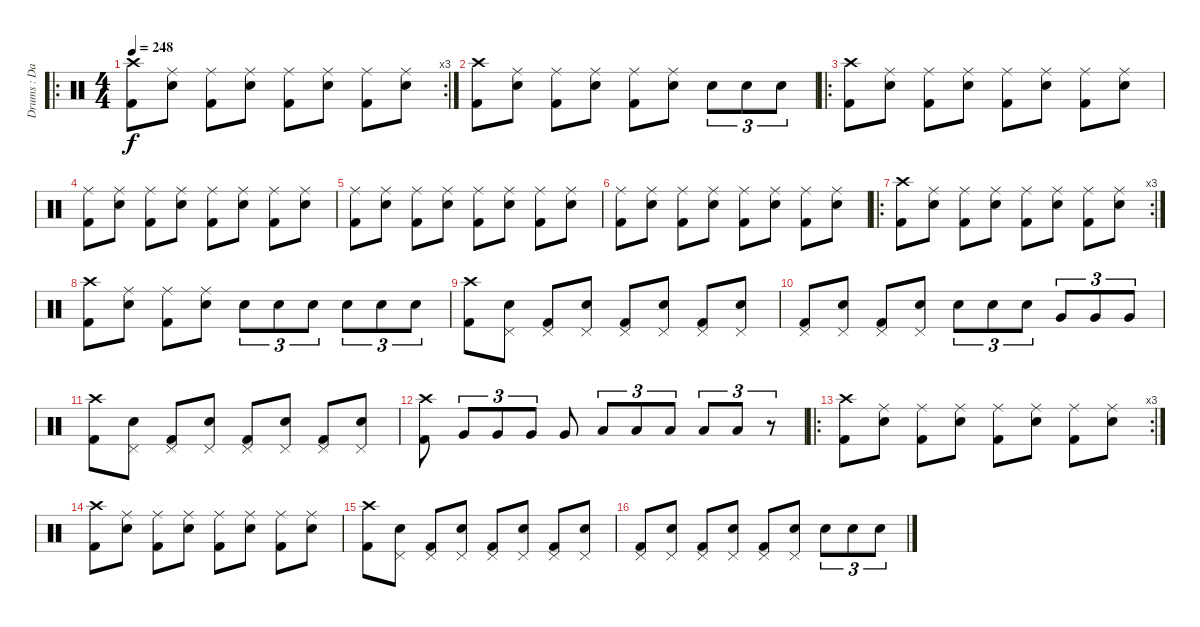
\track ("Drums : Dave Lombardo" "Drums : Da") {instrument percussion}
\staff {score}
\articulation defaults
\ro
\rc 3
\ts (4 4)
\tempo 248
\clef neutral
\ks c
("Crash high (hit)" "Kick (hit) 2").8{dy f} ("Ride (middle)" "Electric Snare (hit)").8 ("Ride (middle)" "Kick (hit) 2").8 ("Ride (middle)" "Electric Snare (hit)").8 ("Ride (middle)" "Kick (hit) 2").8 ("Ride (middle)" "Electric Snare (hit)").8 ("Ride (middle)" "Kick (hit) 2").8 ("Ride (middle)" "Electric Snare (hit)").8 |
("Crash high (hit)" "Kick (hit) 2").8 ("Ride (middle)" "Electric Snare (hit)").8 ("Ride (middle)" "Kick (hit) 2").8 ("Ride (middle)" "Electric Snare (hit)").8 ("Ride (middle)" "Kick (hit) 2").8 ("Ride (middle)" "Electric Snare (hit)").8 "Electric Snare (hit)".8{tu (3 2)} "Electric Snare (hit)".8{tu (3 2)} "Electric Snare (hit)".8{tu (3 2)} |
\ro
("Crash high (hit)" "Kick (hit) 2").8 ("Ride (middle)" "Electric Snare (hit)").8 ("Ride (middle)" "Kick (hit) 2").8 ("Ride (middle)" "Electric Snare (hit)").8 ("Ride (middle)" "Kick (hit) 2").8 ("Ride (middle)" "Electric Snare (hit)").8 ("Ride (middle)" "Kick (hit) 2").8 ("Ride (middle)" "Electric Snare (hit)").8 |
("Ride (middle)" "Kick (hit) 2").8 ("Ride (middle)" "Electric Snare (hit)").8 ("Ride (middle)" "Kick (hit) 2").8 ("Ride (middle)" "Electric Snare (hit)").8 ("Ride (middle)" "Kick (hit) 2").8 ("Ride (middle)" "Electric Snare (hit)").8 ("Ride (middle)" "Kick (hit) 2").8 ("Ride (middle)" "Electric Snare (hit)").8 |
("Ride (middle)" "Kick (hit) 2").8 ("Ride (middle)" "Electric Snare (hit)").8 ("Ride (middle)" "Kick (hit) 2").8 ("Ride (middle)" "Electric Snare (hit)").8 ("Ride (middle)" "Kick (hit) 2").8 ("Ride (middle)" "Electric Snare (hit)").8 ("Ride (middle)" "Kick (hit) 2").8 ("Ride (middle)" "Electric Snare (hit)").8 |
("Ride (middle)" "Kick (hit) 2").8 ("Ride (middle)" "Electric Snare (hit)").8 ("Ride (middle)" "Kick (hit) 2").8 ("Ride (middle)" "Electric Snare (hit)").8 ("Ride (middle)" "Kick (hit) 2").8 ("Ride (middle)" "Electric Snare (hit)").8 ("Ride (middle)" "Kick (hit) 2").8 ("Ride (middle)" "Electric Snare (hit)").8 |
\ro
\rc 3
("Crash high (hit)" "Kick (hit) 2").8 ("Ride (middle)" "Electric Snare (hit)").8 ("Ride (middle)" "Kick (hit) 2").8 ("Ride (middle)" "Electric Snare (hit)").8 ("Ride (middle)" "Kick (hit) 2").8 ("Ride (middle)" "Electric Snare (hit)").8 ("Ride (middle)" "Kick (hit) 2").8 ("Ride (middle)" "Electric Snare (hit)").8 |
("Crash high (hit)" "Kick (hit) 2").8 ("Ride (middle)" "Electric Snare (hit)").8 ("Ride (middle)" "Kick (hit) 2").8 ("Ride (middle)" "Electric Snare (hit)").8 "Electric Snare (hit)".8{tu (3 2)} "Electric Snare (hit)".8{tu (3 2)} "Electric Snare (hit)".8{tu (3 2)} "Electric Snare (hit)".8{tu (3 2)} "Electric Snare (hit)".8{tu (3 2)} "Electric Snare (hit)".8{tu (3 2)} |
("Crash high (hit)" "Kick (hit) 2").8 ("Pedal Hi-Hat (hit)" "Electric Snare (hit)").8 ("Pedal Hi-Hat (hit)" "Kick (hit) 2").8 ("Pedal Hi-Hat (hit)" "Electric Snare (hit)").8 ("Pedal Hi-Hat (hit)" "Kick (hit) 2").8 ("Pedal Hi-Hat (hit)" "Electric Snare (hit)").8 ("Pedal Hi-Hat (hit)" "Kick (hit) 2").8 ("Pedal Hi-Hat (hit)" "Electric Snare (hit)").8 |
("Pedal Hi-Hat (hit)" "Kick (hit) 2").8 ("Pedal Hi-Hat (hit)" "Electric Snare (hit)").8 ("Pedal Hi-Hat (hit)" "Kick (hit) 2").8 ("Pedal Hi-Hat (hit)" "Electric Snare (hit)").8 "Electric Snare (hit)".8{tu (3 2)} "Electric Snare (hit)".8{tu (3 2)} "Electric Snare (hit)".8{tu (3 2)} "Very Low Tom (hit)".8{tu (3 2)} "Very Low Tom (hit)".8{tu (3 2)} "Very Low Tom (hit)".8{tu (3 2)} |
("Crash high (hit)" "Kick (hit) 2").8 ("Pedal Hi-Hat (hit)" "Electric Snare (hit)").8 ("Pedal Hi-Hat (hit)" "Kick (hit) 2").8 ("Pedal Hi-Hat (hit)" "Electric Snare (hit)").8 ("Pedal Hi-Hat (hit)" "Kick (hit) 2").8 ("Pedal Hi-Hat (hit)" "Electric Snare (hit)").8 ("Pedal Hi-Hat (hit)" "Kick (hit) 2").8 ("Pedal Hi-Hat (hit)" "Electric Snare (hit)").8 |
("Crash high (hit)" "Kick (hit) 2").8 "Very Low Tom (hit)".8{tu (3 2)} "Very Low Tom (hit)".8{tu (3 2)} "Very Low Tom (hit)".8{tu (3 2)} "Very Low Tom (hit)".8 "Low Tom (hit)".8{tu (3 2)} "Low Tom (hit)".8{tu (3 2)} "Low Tom (hit)".8{tu (3 2)} "Low Tom (hit)".8{tu (3 2)} "Low Tom (hit)".8{tu (3 2)} r.8{tu (3 2)} |
\ro
\rc 3
("Crash high (hit)" "Kick (hit) 2").8 ("Ride (middle)" "Electric Snare (hit)").8 ("Ride (middle)" "Kick (hit) 2").8 ("Ride (middle)" "Electric Snare (hit)").8 ("Ride (middle)" "Kick (hit) 2").8 ("Ride (middle)" "Electric Snare (hit)").8 ("Ride (middle)" "Kick (hit) 2").8 ("Ride (middle)" "Electric Snare (hit)").8 |
("Crash high (hit)" "Kick (hit) 2").8 ("Ride (middle)" "Electric Snare (hit)").8 ("Ride (middle)" "Kick (hit) 2").8 ("Ride (middle)" "Electric Snare (hit)").8 ("Ride (middle)" "Kick (hit) 2").8 ("Ride (middle)" "Electric Snare (hit)").8 ("Ride (middle)" "Kick (hit) 2").8 ("Ride (middle)" "Electric Snare (hit)").8 |
("Crash high (hit)" "Kick (hit) 2").8 ("Pedal Hi-Hat (hit)" "Electric Snare (hit)").8 ("Pedal Hi-Hat (hit)" "Kick (hit) 2").8 ("Pedal Hi-Hat (hit)" "Electric Snare (hit)").8 ("Pedal Hi-Hat (hit)" "Kick (hit) 2").8 ("Pedal Hi-Hat (hit)" "Electric Snare (hit)").8 ("Pedal Hi-Hat (hit)" "Kick (hit) 2").8 ("Pedal Hi-Hat (hit)" "Electric Snare (hit)").8 |
("Pedal Hi-Hat (hit)" "Kick (hit) 2").8 ("Pedal Hi-Hat (hit)" "Electric Snare (hit)").8 ("Pedal Hi-Hat (hit)" "Kick (hit) 2").8 ("Pedal Hi-Hat (hit)" "Electric Snare (hit)").8 ("Pedal Hi-Hat (hit)" "Kick (hit) 2").8 ("Pedal Hi-Hat (hit)" "Electric Snare (hit)").8 "Electric Snare (hit)".8{tu (3 2)} "Electric Snare (hit)".8{tu (3 2)} "Electric Snare (hit)".8{tu (3 2)}
